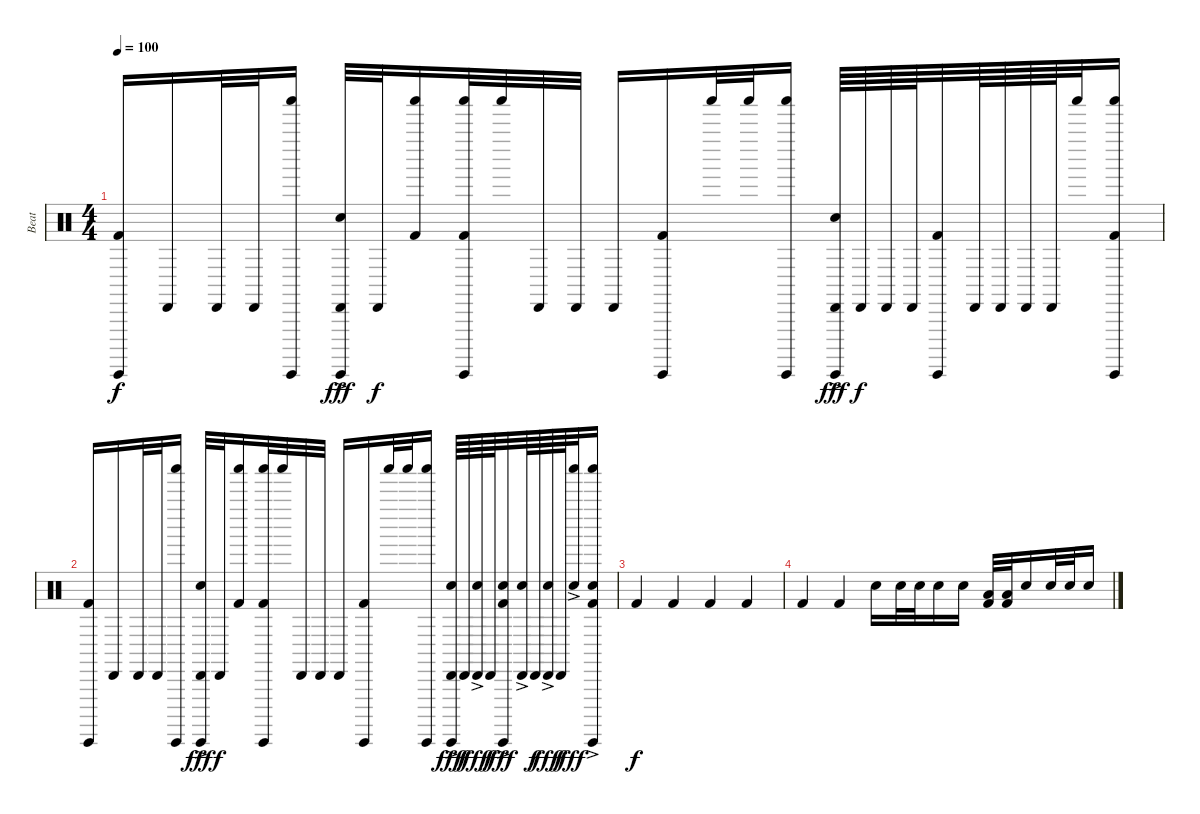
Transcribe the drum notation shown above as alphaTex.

\track ("Beat" "Beat") {instrument percussion}
\staff {score}
\articulation defaults
\ts (4 4)
\tempo 100
\clef neutral
\ks c
("Guiro (hit)" "Kick (hit) 2").16{dy f} "Cabasa (hit)".16 "Cabasa (hit)".32 "Cabasa (hit)".32 ("Guiro (hit)" "Shaker (hit)").16 ("Guiro (hit)" "Cabasa (hit)" "Snare (hit) 2"{ac}).32{dy fff} "Cabasa (hit)".32{dy f} ("Shaker (hit)" "Kick (hit) 2").16 ("Guiro (hit)" "Shaker (hit)" "Kick (hit) 2").32 "Shaker (hit)".32 "Cabasa (hit)".32 "Cabasa (hit)".32 "Cabasa (hit)".16 ("Guiro (hit)" "Kick (hit) 2").16 "Shaker (hit)".32 "Shaker (hit)".32 ("Guiro (hit)" "Shaker (hit)").16 ("Guiro (hit)" "Cabasa (hit)" "Snare (hit) 2"{ac}).64{dy fff} "Cabasa (hit)".64{dy f} "Cabasa (hit)".64 "Cabasa (hit)".64 ("Guiro (hit)" "Kick (hit) 2").32 "Cabasa (hit)".64 "Cabasa (hit)".64 "Cabasa (hit)".64 "Cabasa (hit)".64 "Shaker (hit)".32 ("Guiro (hit)" "Shaker (hit)" "Kick (hit) 2").16 |
("Guiro (hit)" "Kick (hit) 2").16 "Cabasa (hit)".16 "Cabasa (hit)".32 "Cabasa (hit)".32 ("Guiro (hit)" "Shaker (hit)").16 ("Guiro (hit)" "Cabasa (hit)" "Snare (hit) 2"{ac}).32{dy fff} "Cabasa (hit)".32{dy f} ("Shaker (hit)" "Kick (hit) 2").16 ("Guiro (hit)" "Shaker (hit)" "Kick (hit) 2").32 "Shaker (hit)".32 "Cabasa (hit)".32 "Cabasa (hit)".32 "Cabasa (hit)".16 ("Guiro (hit)" "Kick (hit) 2").16 "Shaker (hit)".32 "Shaker (hit)".32 ("Guiro (hit)" "Shaker (hit)").16 ("Guiro (hit)" "Cabasa (hit)" "Snare (hit) 2"{ac}).64{dy fff} "Cabasa (hit)".64{dy f} ("Cabasa (hit)" "Snare (hit) 2"{ac}).64{dy fff} "Cabasa (hit)".64{dy f} ("Guiro (hit)" "Snare (hit) 2"{ac} "Kick (hit) 2").32{dy fff} ("Cabasa (hit)" "Snare (hit) 2"{ac}).64 "Cabasa (hit)".64{dy f} ("Cabasa (hit)" "Snare (hit) 2"{ac}).64{dy fff} "Cabasa (hit)".64{dy f} ("Shaker (hit)" "Snare (hit) 2"{ac}).32{dy fff} ("Guiro (hit)" "Shaker (hit)" "Snare (hit) 2"{ac} "Kick (hit) 2").16 |
"Kick (hit) 2".4{dy f} "Kick (hit) 2".4 "Kick (hit) 2".4 "Kick (hit) 2".4 |
"Kick (hit) 2".4 "Kick (hit) 2".4 "Snare (hit) 2".16 "Snare (hit) 2".32 "Snare (hit) 2".32 "Snare (hit) 2".16 "Snare (hit) 2".16 ("Low Tom (hit)" "Kick (hit) 2").32 ("Low Tom (hit)" "Kick (hit) 2").32 "Snare (hit) 2".16 "Snare (hit) 2".32 "Snare (hit) 2".32 "Snare (hit) 2".16
